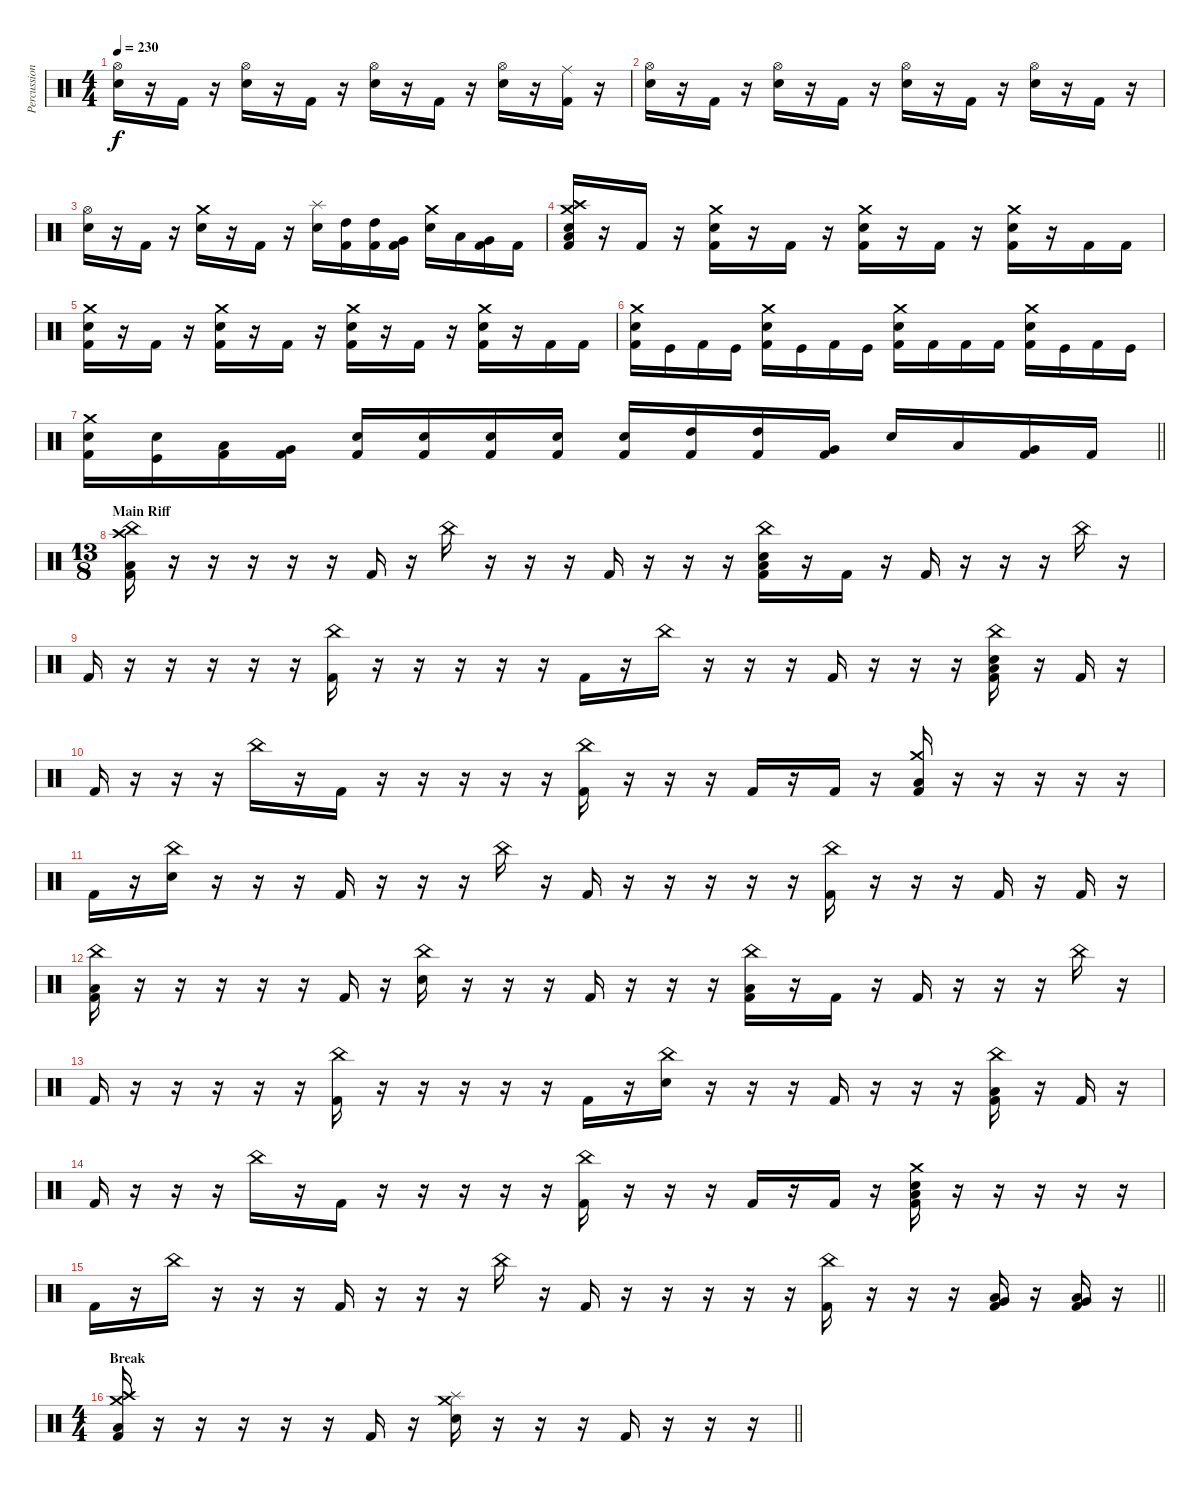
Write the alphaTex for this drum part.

\track ("Percussion" "Percussion") {instrument percussion}
\staff {score}
\articulation defaults
\ts (4 4)
\tempo 230
\clef neutral
\ks c
("Hi-Hat (open)" "Electric Snare (hit)").16{dy f} r.16 "Kick (hit) 2".16 r.16 ("Hi-Hat (open)" "Electric Snare (hit)").16 r.16 "Kick (hit) 2".16 r.16 ("Hi-Hat (open)" "Electric Snare (hit)").16 r.16 "Kick (hit) 2".16 r.16 ("Hi-Hat (open)" "Electric Snare (hit)").16 r.16 ("Ride (middle)" "Kick (hit) 2").16 r.16 |
("Hi-Hat (open)" "Electric Snare (hit)").16 r.16 "Kick (hit) 2".16 r.16 ("Hi-Hat (open)" "Electric Snare (hit)").16 r.16 "Kick (hit) 2".16 r.16 ("Hi-Hat (open)" "Electric Snare (hit)").16 r.16 "Kick (hit) 2".16 r.16 ("Hi-Hat (open)" "Electric Snare (hit)").16 r.16 "Kick (hit) 2".16 r.16 |
("Hi-Hat (open)" "Electric Snare (hit)").16 r.16 "Kick (hit) 2".16 r.16 ("Crash medium (hit)" "Electric Snare (hit)").16 r.16 "Kick (hit) 2".16 r.16 ("Splash (hit)" "Electric Snare (hit)").16 ("High Tom (hit)" "Kick (hit) 2").16 ("High Tom (hit)" "Kick (hit) 2").16 ("Very Low Tom (hit)" "Kick (hit) 2").16 ("Crash medium (hit)" "Electric Snare (hit)").16 "Low Tom (hit)".16 ("Very Low Tom (hit)" "Kick (hit) 2").16 "Kick (hit) 2".16 |
("Crash high (hit)" "Crash medium (hit)" "Electric Snare (hit)" "Low Floor Tom (hit)" "Kick (hit) 2").16 r.16 "Kick (hit) 2".16 r.16 ("Crash medium (hit)" "Electric Snare (hit)" "Kick (hit) 2").16 r.16 "Kick (hit) 2".16 r.16 ("Crash medium (hit)" "Electric Snare (hit)" "Kick (hit) 2").16 r.16 "Kick (hit) 2".16 r.16 ("Crash medium (hit)" "Electric Snare (hit)" "Kick (hit) 2").16 r.16 "Kick (hit) 2".16 "Kick (hit) 2".16 |
("Crash medium (hit)" "Electric Snare (hit)" "Kick (hit) 2").16 r.16 "Kick (hit) 2".16 r.16 ("Crash medium (hit)" "Electric Snare (hit)" "Kick (hit) 2").16 r.16 "Kick (hit) 2".16 r.16 ("Crash medium (hit)" "Electric Snare (hit)" "Kick (hit) 2").16 r.16 "Kick (hit) 2".16 r.16 ("Crash medium (hit)" "Electric Snare (hit)" "Kick (hit) 2").16 r.16 "Kick (hit) 2".16 "Kick (hit) 2".16 |
("Crash medium (hit)" "Electric Snare (hit)" "Kick (hit) 2").16 "Kick (hit)".16 "Kick (hit) 2".16 "Kick (hit)".16 ("Crash medium (hit)" "Electric Snare (hit)" "Kick (hit) 2").16 "Kick (hit)".16 "Kick (hit) 2".16 "Kick (hit)".16 ("Crash medium (hit)" "Electric Snare (hit)" "Kick (hit) 2").16 "Kick (hit) 2".16 "Kick (hit) 2".16 "Kick (hit) 2".16 ("Crash medium (hit)" "Electric Snare (hit)" "Kick (hit) 2").16 "Kick (hit)".16 "Kick (hit) 2".16 "Kick (hit)".16 |
\barLineRight lightlight
("Crash medium (hit)" "Electric Snare (hit)" "Kick (hit) 2").16 ("Electric Snare (hit)" "Kick (hit)").16 ("Low Tom (hit)" "Kick (hit) 2").16 ("Very Low Tom (hit)" "Kick (hit) 2").16 ("Electric Snare (hit)" "Kick (hit) 2").16 ("Electric Snare (hit)" "Kick (hit) 2").16 ("Electric Snare (hit)" "Kick (hit) 2").16 ("Electric Snare (hit)" "Kick (hit) 2").16 ("Electric Snare (hit)" "Kick (hit) 2").16 ("High Tom (hit)" "Kick (hit) 2").16 ("High Tom (hit)" "Kick (hit) 2").16 ("Very Low Tom (hit)" "Kick (hit) 2").16 "Electric Snare (hit)".16 "Low Tom (hit)".16 ("Very Low Tom (hit)" "Kick (hit) 2").16 "Kick (hit) 2".16 |
\ts (13 8)
\section ("" "Main Riff")
("China (hit)" "Crash high (hit)" "Low Floor Tom (hit)" "Kick (hit) 2").16 r.16 r.16 r.16 r.16 r.16 "Kick (hit) 2".16 r.16 "China (hit)".16 r.16 r.16 r.16 "Kick (hit) 2".16 r.16 r.16 r.16 ("China (hit)" "Electric Snare (hit)" "Low Floor Tom (hit)" "Kick (hit) 2").16 r.16 "Kick (hit) 2".16 r.16 "Kick (hit) 2".16 r.16 r.16 r.16 "China (hit)".16 r.16 |
"Kick (hit) 2".16 r.16 r.16 r.16 r.16 r.16 ("China (hit)" "Kick (hit) 2").16 r.16 r.16 r.16 r.16 r.16 "Kick (hit) 2".16 r.16 "China (hit)".16 r.16 r.16 r.16 "Kick (hit) 2".16 r.16 r.16 r.16 ("China (hit)" "Electric Snare (hit)" "Low Floor Tom (hit)" "Kick (hit) 2").16 r.16 "Kick (hit) 2".16 r.16 |
"Kick (hit) 2".16 r.16 r.16 r.16 "China (hit)".16 r.16 "Kick (hit) 2".16 r.16 r.16 r.16 r.16 r.16 ("China (hit)" "Kick (hit) 2").16 r.16 r.16 r.16 "Kick (hit) 2".16 r.16 "Kick (hit) 2".16 r.16 ("Crash medium (hit)" "Low Floor Tom (hit)" "Kick (hit) 2").16 r.16 r.16 r.16 r.16 r.16 |
"Kick (hit) 2".16 r.16 ("China (hit)" "Electric Snare (hit)").16 r.16 r.16 r.16 "Kick (hit) 2".16 r.16 r.16 r.16 "China (hit)".16 r.16 "Kick (hit) 2".16 r.16 r.16 r.16 r.16 r.16 ("China (hit)" "Kick (hit) 2").16 r.16 r.16 r.16 "Kick (hit) 2".16 r.16 "Kick (hit) 2".16 r.16 |
("China (hit)" "Low Floor Tom (hit)" "Kick (hit) 2").16 r.16 r.16 r.16 r.16 r.16 "Kick (hit) 2".16 r.16 ("China (hit)" "Electric Snare (hit)").16 r.16 r.16 r.16 "Kick (hit) 2".16 r.16 r.16 r.16 ("China (hit)" "Low Floor Tom (hit)" "Kick (hit) 2").16 r.16 "Kick (hit) 2".16 r.16 "Kick (hit) 2".16 r.16 r.16 r.16 "China (hit)".16 r.16 |
"Kick (hit) 2".16 r.16 r.16 r.16 r.16 r.16 ("China (hit)" "Kick (hit) 2").16 r.16 r.16 r.16 r.16 r.16 "Kick (hit) 2".16 r.16 ("China (hit)" "Electric Snare (hit)").16 r.16 r.16 r.16 "Kick (hit) 2".16 r.16 r.16 r.16 ("China (hit)" "Low Floor Tom (hit)" "Kick (hit) 2").16 r.16 "Kick (hit) 2".16 r.16 |
"Kick (hit) 2".16 r.16 r.16 r.16 "China (hit)".16 r.16 "Kick (hit) 2".16 r.16 r.16 r.16 r.16 r.16 ("China (hit)" "Kick (hit) 2").16 r.16 r.16 r.16 "Kick (hit) 2".16 r.16 "Kick (hit) 2".16 r.16 ("Crash medium (hit)" "Electric Snare (hit)" "Low Floor Tom (hit)" "Kick (hit) 2").16 r.16 r.16 r.16 r.16 r.16 |
\barLineRight lightlight "Kick (hit) 2".16
r.16 "China (hit)".16 r.16 r.16 r.16 "Kick (hit) 2".16 r.16 r.16 r.16 "China (hit)".16 r.16 "Kick (hit) 2".16 r.16 r.16 r.16 r.16 r.16 ("China (hit)" "Kick (hit) 2").16 r.16 r.16 r.16 ("Very Low Tom (hit)" "Low Floor Tom (hit)" "Kick (hit) 2").16 r.16 ("Very Low Tom (hit)" "Low Floor Tom (hit)" "Kick (hit) 2").16 r.16 |
\ts (4 4)
\section ("" "Break")
\barLineRight lightlight
("Crash high (hit)" "Crash medium (hit)" "Low Floor Tom (hit)" "Kick (hit) 2").16 r.16 r.16 r.16 r.16 r.16 "Kick (hit) 2".16 r.16 ("Crash medium (hit)" "Splash (hit)" "Electric Snare (hit)").16 r.16 r.16 r.16 "Kick (hit) 2".16 r.16 r.16 r.16
